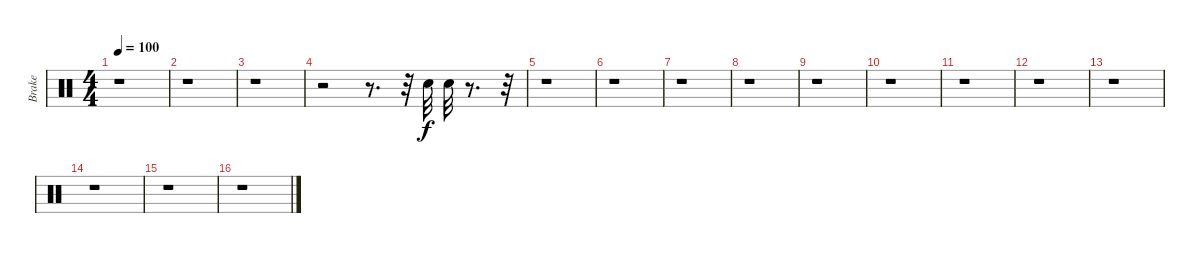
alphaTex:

\track ("Brake" "Brake") {instrument percussion}
\staff {score}
\articulation defaults
\ts (4 4)
\tempo 100
\clef neutral
\ks c
r.1{dy f} |
r.1 |
r.1 |
r.2 r.8{d} r.32 "Metronome (bell)".32 "Metronome (bell)".32 r.8{d} r.32 |
r.1 |
r.1 |
r.1 |
r.1 |
r.1 |
r.1 |
r.1 |
r.1 |
r.1 |
r.1 |
r.1 |
r.1
